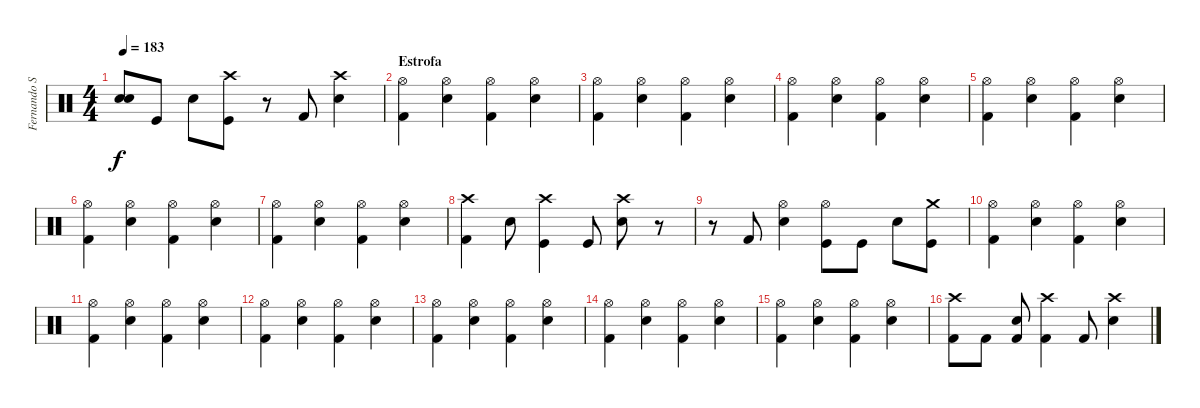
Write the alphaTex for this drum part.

\track ("Fernando Scarcella" "Fernando S") {instrument percussion}
\staff {score}
\articulation defaults
\ts (4 4)
\tempo 183
\clef neutral
\ks c
("Snare (hit)"{t} "Snare (hit)"{t}).8{dy f} "Kick (hit)".8 "Snare (hit) 2".8 ("Crash high (hit)" "Kick (hit)").8 r.8 "Kick (hit) 2".8 ("Crash high (hit)" "Snare (hit) 2").4 |
\section ("" "Estrofa")
("Hi-Hat (open)" "Kick (hit) 2").4 ("Hi-Hat (open)" "Snare (hit) 2").4 ("Hi-Hat (open)" "Kick (hit) 2").4 ("Hi-Hat (open)" "Snare (hit) 2").4 |
("Hi-Hat (open)" "Kick (hit) 2").4 ("Hi-Hat (open)" "Snare (hit) 2").4 ("Hi-Hat (open)" "Kick (hit) 2").4 ("Hi-Hat (open)" "Snare (hit) 2").4 |
("Hi-Hat (open)" "Kick (hit) 2").4 ("Hi-Hat (open)" "Snare (hit) 2").4 ("Hi-Hat (open)" "Kick (hit) 2").4 ("Hi-Hat (open)" "Snare (hit) 2").4 |
("Hi-Hat (open)" "Kick (hit) 2").4 ("Hi-Hat (open)" "Snare (hit) 2").4 ("Hi-Hat (open)" "Kick (hit) 2").4 ("Hi-Hat (open)" "Snare (hit) 2").4 |
("Hi-Hat (open)" "Kick (hit) 2").4 ("Hi-Hat (open)" "Snare (hit) 2").4 ("Hi-Hat (open)" "Kick (hit) 2").4 ("Hi-Hat (open)" "Snare (hit) 2").4 |
("Hi-Hat (open)" "Kick (hit) 2").4 ("Hi-Hat (open)" "Snare (hit) 2").4 ("Hi-Hat (open)" "Kick (hit) 2").4 ("Hi-Hat (open)" "Snare (hit) 2").4 |
("Crash high (hit)" "Kick (hit) 2").4 "Snare (hit) 2".8 ("Crash high (hit)" "Kick (hit)").4 "Kick (hit)".8 ("Crash high (hit)" "Snare (hit) 2").8 r.8 |
r.8 "Kick (hit) 2".8 ("Hi-Hat (open)" "Snare (hit) 2").4 ("Kick (hit)" "Hi-Hat (open)").8 "Kick (hit)".8 "Snare (hit) 2".8 ("Kick (hit)" "Crash medium (hit)").8 |
("Hi-Hat (open)" "Kick (hit) 2").4 ("Hi-Hat (open)" "Snare (hit) 2").4 ("Hi-Hat (open)" "Kick (hit) 2").4 ("Hi-Hat (open)" "Snare (hit) 2").4 |
("Hi-Hat (open)" "Kick (hit) 2").4 ("Hi-Hat (open)" "Snare (hit) 2").4 ("Hi-Hat (open)" "Kick (hit) 2").4 ("Hi-Hat (open)" "Snare (hit) 2").4 |
("Hi-Hat (open)" "Kick (hit) 2").4 ("Hi-Hat (open)" "Snare (hit) 2").4 ("Hi-Hat (open)" "Kick (hit) 2").4 ("Hi-Hat (open)" "Snare (hit) 2").4 |
("Hi-Hat (open)" "Kick (hit) 2").4 ("Hi-Hat (open)" "Snare (hit) 2").4 ("Hi-Hat (open)" "Kick (hit) 2").4 ("Hi-Hat (open)" "Snare (hit) 2").4 |
("Hi-Hat (open)" "Kick (hit) 2").4 ("Hi-Hat (open)" "Snare (hit) 2").4 ("Hi-Hat (open)" "Kick (hit) 2").4 ("Hi-Hat (open)" "Snare (hit) 2").4 |
("Hi-Hat (open)" "Kick (hit) 2").4 ("Hi-Hat (open)" "Snare (hit) 2").4 ("Hi-Hat (open)" "Kick (hit) 2").4 ("Hi-Hat (open)" "Snare (hit) 2").4 |
("Crash high (hit)" "Kick (hit) 2").8 "Kick (hit) 2".8 ("Kick (hit) 2" "Snare (hit) 2").8 ("Crash high (hit)" "Kick (hit) 2").4 "Kick (hit) 2".8 ("Crash high (hit)" "Snare (hit) 2").4
